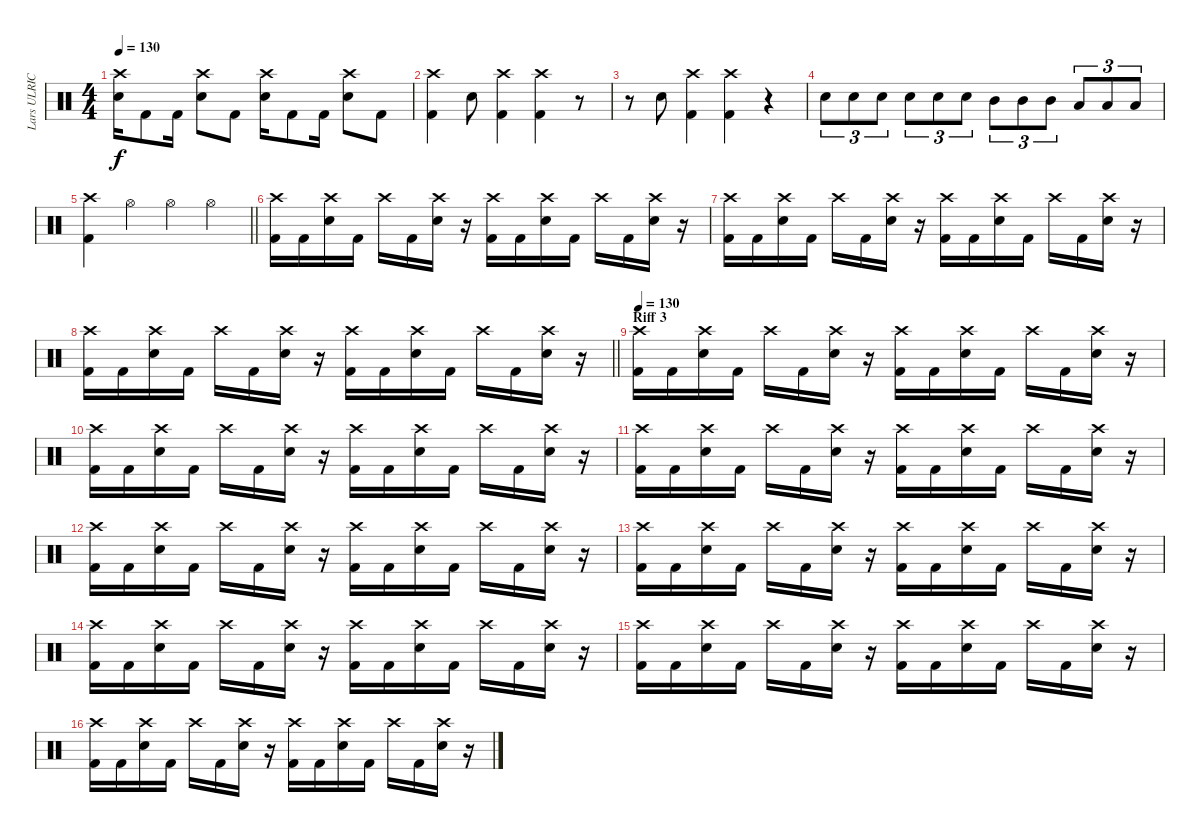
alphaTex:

\track ("Lars ULRICH" "Lars ULRIC") {instrument percussion}
\staff {score}
\articulation defaults
\ts (4 4)
\tempo 130
\clef neutral
\ks c
("Crash high (hit)" "Snare (hit) 2").16{dy f} "Kick (hit) 2".8 "Kick (hit) 2".16 ("Crash high (hit)" "Snare (hit) 2").8 "Kick (hit) 2".8 ("Crash high (hit)" "Snare (hit) 2").16 "Kick (hit) 2".8 "Kick (hit) 2".16 ("Crash high (hit)" "Snare (hit) 2").8 "Kick (hit) 2".8 |
("Crash high (hit)" "Kick (hit) 2").4 "Snare (hit) 2".8 ("Crash high (hit)" "Kick (hit) 2").4 ("Crash high (hit)" "Kick (hit) 2").4 r.8 |
r.8 "Snare (hit) 2".8 ("Crash high (hit)" "Kick (hit) 2").4 ("Crash high (hit)" "Kick (hit) 2").4 r.4 |
"Snare (hit) 2".8{tu (3 2)} "Snare (hit) 2".8{tu (3 2)} "Snare (hit) 2".8{tu (3 2)} "Snare (hit) 2".8{tu (3 2)} "Snare (hit) 2".8{tu (3 2)} "Snare (hit) 2".8{tu (3 2)} "Mid Tom (hit)".8{tu (3 2)} "Mid Tom (hit)".8{tu (3 2)} "Mid Tom (hit)".8{tu (3 2)} "Low Tom (hit)".8{tu (3 2)} "Low Tom (hit)".8{tu (3 2)} "Low Tom (hit)".8{tu (3 2)} |
\barLineRight lightlight
("Crash high (hit)" "Kick (hit) 2").4 "Hi-Hat (open)".4 "Hi-Hat (open)".4 "Hi-Hat (open)".4 |
("Crash high (hit)" "Kick (hit) 2").16 "Kick (hit) 2".16 ("Crash high (hit)" "Snare (hit) 2").16 "Kick (hit) 2".16 "Crash high (hit)".16 "Kick (hit) 2".16 ("Crash high (hit)" "Snare (hit) 2").16 r.16 ("Crash high (hit)" "Kick (hit) 2").16 "Kick (hit) 2".16 ("Crash high (hit)" "Snare (hit) 2").16 "Kick (hit) 2".16 "Crash high (hit)".16 "Kick (hit) 2".16 ("Crash high (hit)" "Snare (hit) 2").16 r.16 |
("Crash high (hit)" "Kick (hit) 2").16 "Kick (hit) 2".16 ("Crash high (hit)" "Snare (hit) 2").16 "Kick (hit) 2".16 "Crash high (hit)".16 "Kick (hit) 2".16 ("Crash high (hit)" "Snare (hit) 2").16 r.16 ("Crash high (hit)" "Kick (hit) 2").16 "Kick (hit) 2".16 ("Crash high (hit)" "Snare (hit) 2").16 "Kick (hit) 2".16 "Crash high (hit)".16 "Kick (hit) 2".16 ("Crash high (hit)" "Snare (hit) 2").16 r.16 |
\barLineRight lightlight
("Crash high (hit)" "Kick (hit) 2").16 "Kick (hit) 2".16 ("Crash high (hit)" "Snare (hit) 2").16 "Kick (hit) 2".16 "Crash high (hit)".16 "Kick (hit) 2".16 ("Crash high (hit)" "Snare (hit) 2").16 r.16 ("Crash high (hit)" "Kick (hit) 2").16 "Kick (hit) 2".16 ("Crash high (hit)" "Snare (hit) 2").16 "Kick (hit) 2".16 "Crash high (hit)".16 "Kick (hit) 2".16 ("Crash high (hit)" "Snare (hit) 2").16 r.16 |
\section ("" "Riff 3")
\tempo 130
("Crash high (hit)" "Kick (hit) 2").16 "Kick (hit) 2".16 ("Crash high (hit)" "Snare (hit) 2").16 "Kick (hit) 2".16 "Crash high (hit)".16 "Kick (hit) 2".16 ("Crash high (hit)" "Snare (hit) 2").16 r.16 ("Crash high (hit)" "Kick (hit) 2").16 "Kick (hit) 2".16 ("Crash high (hit)" "Snare (hit) 2").16 "Kick (hit) 2".16 "Crash high (hit)".16 "Kick (hit) 2".16 ("Crash high (hit)" "Snare (hit) 2").16 r.16 |
("Crash high (hit)" "Kick (hit) 2").16 "Kick (hit) 2".16 ("Crash high (hit)" "Snare (hit) 2").16 "Kick (hit) 2".16 "Crash high (hit)".16 "Kick (hit) 2".16 ("Crash high (hit)" "Snare (hit) 2").16 r.16 ("Crash high (hit)" "Kick (hit) 2").16 "Kick (hit) 2".16 ("Crash high (hit)" "Snare (hit) 2").16 "Kick (hit) 2".16 "Crash high (hit)".16 "Kick (hit) 2".16 ("Crash high (hit)" "Snare (hit) 2").16 r.16 |
("Crash high (hit)" "Kick (hit) 2").16 "Kick (hit) 2".16 ("Crash high (hit)" "Snare (hit) 2").16 "Kick (hit) 2".16 "Crash high (hit)".16 "Kick (hit) 2".16 ("Crash high (hit)" "Snare (hit) 2").16 r.16 ("Crash high (hit)" "Kick (hit) 2").16 "Kick (hit) 2".16 ("Crash high (hit)" "Snare (hit) 2").16 "Kick (hit) 2".16 "Crash high (hit)".16 "Kick (hit) 2".16 ("Crash high (hit)" "Snare (hit) 2").16 r.16 |
("Crash high (hit)" "Kick (hit) 2").16 "Kick (hit) 2".16 ("Crash high (hit)" "Snare (hit) 2").16 "Kick (hit) 2".16 "Crash high (hit)".16 "Kick (hit) 2".16 ("Crash high (hit)" "Snare (hit) 2").16 r.16 ("Crash high (hit)" "Kick (hit) 2").16 "Kick (hit) 2".16 ("Crash high (hit)" "Snare (hit) 2").16 "Kick (hit) 2".16 "Crash high (hit)".16 "Kick (hit) 2".16 ("Crash high (hit)" "Snare (hit) 2").16 r.16 |
("Crash high (hit)" "Kick (hit) 2").16 "Kick (hit) 2".16 ("Crash high (hit)" "Snare (hit) 2").16 "Kick (hit) 2".16 "Crash high (hit)".16 "Kick (hit) 2".16 ("Crash high (hit)" "Snare (hit) 2").16 r.16 ("Crash high (hit)" "Kick (hit) 2").16 "Kick (hit) 2".16 ("Crash high (hit)" "Snare (hit) 2").16 "Kick (hit) 2".16 "Crash high (hit)".16 "Kick (hit) 2".16 ("Crash high (hit)" "Snare (hit) 2").16 r.16 |
("Crash high (hit)" "Kick (hit) 2").16 "Kick (hit) 2".16 ("Crash high (hit)" "Snare (hit) 2").16 "Kick (hit) 2".16 "Crash high (hit)".16 "Kick (hit) 2".16 ("Crash high (hit)" "Snare (hit) 2").16 r.16 ("Crash high (hit)" "Kick (hit) 2").16 "Kick (hit) 2".16 ("Crash high (hit)" "Snare (hit) 2").16 "Kick (hit) 2".16 "Crash high (hit)".16 "Kick (hit) 2".16 ("Crash high (hit)" "Snare (hit) 2").16 r.16 |
("Crash high (hit)" "Kick (hit) 2").16 "Kick (hit) 2".16 ("Crash high (hit)" "Snare (hit) 2").16 "Kick (hit) 2".16 "Crash high (hit)".16 "Kick (hit) 2".16 ("Crash high (hit)" "Snare (hit) 2").16 r.16 ("Crash high (hit)" "Kick (hit) 2").16 "Kick (hit) 2".16 ("Crash high (hit)" "Snare (hit) 2").16 "Kick (hit) 2".16 "Crash high (hit)".16 "Kick (hit) 2".16 ("Crash high (hit)" "Snare (hit) 2").16 r.16 |
("Crash high (hit)" "Kick (hit) 2").16 "Kick (hit) 2".16 ("Crash high (hit)" "Snare (hit) 2").16 "Kick (hit) 2".16 "Crash high (hit)".16 "Kick (hit) 2".16 ("Crash high (hit)" "Snare (hit) 2").16 r.16 ("Crash high (hit)" "Kick (hit) 2").16 "Kick (hit) 2".16 ("Crash high (hit)" "Snare (hit) 2").16 "Kick (hit) 2".16 "Crash high (hit)".16 "Kick (hit) 2".16 ("Crash high (hit)" "Snare (hit) 2").16 r.16
